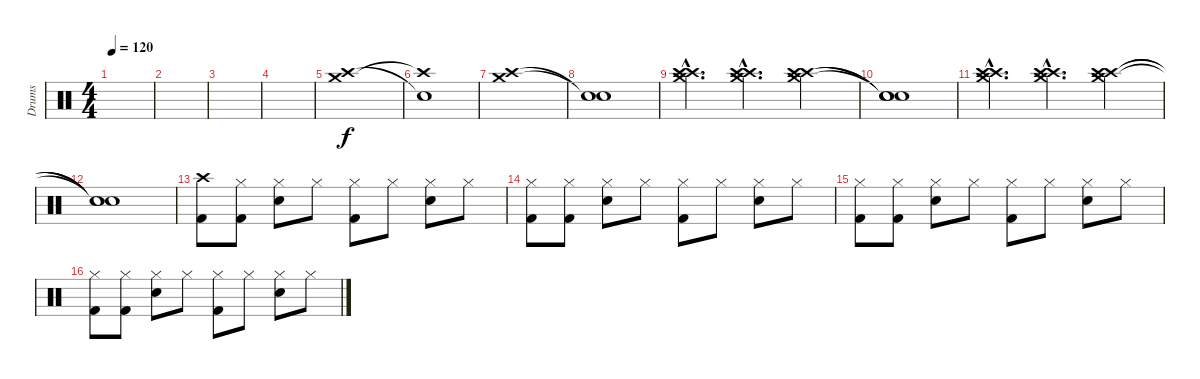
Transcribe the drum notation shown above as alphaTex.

\track ("Drums" "Drums") {instrument percussion}
\staff {score}
\articulation defaults
\ts (4 4)
\tempo 120
\clef neutral
\ks c
|
|
|
|
("Crash high (hit)" "Crash medium (hit)").1 |
("Snare (hit)"{t} "Crash high (hit)"{t}).1 |
("Crash high (hit)" "Crash medium (hit)").1 |
("Snare (hit)"{t} "Snare (hit)"{t}).1 |
("Crash high (hit)"{hac} "Crash high (hit)"{hac} "Crash medium (hit)"{hac}).4{d} ("Crash high (hit)"{hac} "Crash high (hit)"{hac} "Crash medium (hit)"{hac}).4{d} ("Crash high (hit)" "Crash high (hit)" "Crash medium (hit)").4 |
("Snare (hit)"{t} "Snare (hit)"{t} "Snare (hit)"{t}).1 |
("Crash high (hit)"{hac} "Crash high (hit)"{hac} "Crash medium (hit)"{hac}).4{d} ("Crash high (hit)"{hac} "Crash high (hit)"{hac} "Crash medium (hit)"{hac}).4{d} ("Crash high (hit)" "Crash high (hit)" "Crash medium (hit)").4 |
("Snare (hit)"{t} "Snare (hit)"{t} "Snare (hit)"{t}).1 |
("Crash high (hit)" "Kick (hit) 2").8 ("Hi-Hat (closed)" "Kick (hit) 2").8 ("Hi-Hat (closed)" "Electric Snare (hit)").8 "Hi-Hat (closed)".8 ("Hi-Hat (closed)" "Kick (hit) 2").8 "Hi-Hat (closed)".8 ("Hi-Hat (closed)" "Electric Snare (hit)").8 "Hi-Hat (closed)".8 |
("Hi-Hat (closed)" "Kick (hit) 2").8 ("Hi-Hat (closed)" "Kick (hit) 2").8 ("Hi-Hat (closed)" "Electric Snare (hit)").8 "Hi-Hat (closed)".8 ("Hi-Hat (closed)" "Kick (hit) 2").8 "Hi-Hat (closed)".8 ("Hi-Hat (closed)" "Electric Snare (hit)").8 "Hi-Hat (closed)".8 |
("Hi-Hat (closed)" "Kick (hit) 2").8 ("Hi-Hat (closed)" "Kick (hit) 2").8 ("Hi-Hat (closed)" "Electric Snare (hit)").8 "Hi-Hat (closed)".8 ("Hi-Hat (closed)" "Kick (hit) 2").8 "Hi-Hat (closed)".8 ("Hi-Hat (closed)" "Electric Snare (hit)").8 "Hi-Hat (closed)".8 |
("Hi-Hat (closed)" "Kick (hit) 2").8 ("Hi-Hat (closed)" "Kick (hit) 2").8 ("Hi-Hat (closed)" "Electric Snare (hit)").8 "Hi-Hat (closed)".8 ("Hi-Hat (closed)" "Kick (hit) 2").8 "Hi-Hat (closed)".8 ("Hi-Hat (closed)" "Electric Snare (hit)").8 "Hi-Hat (closed)".8
